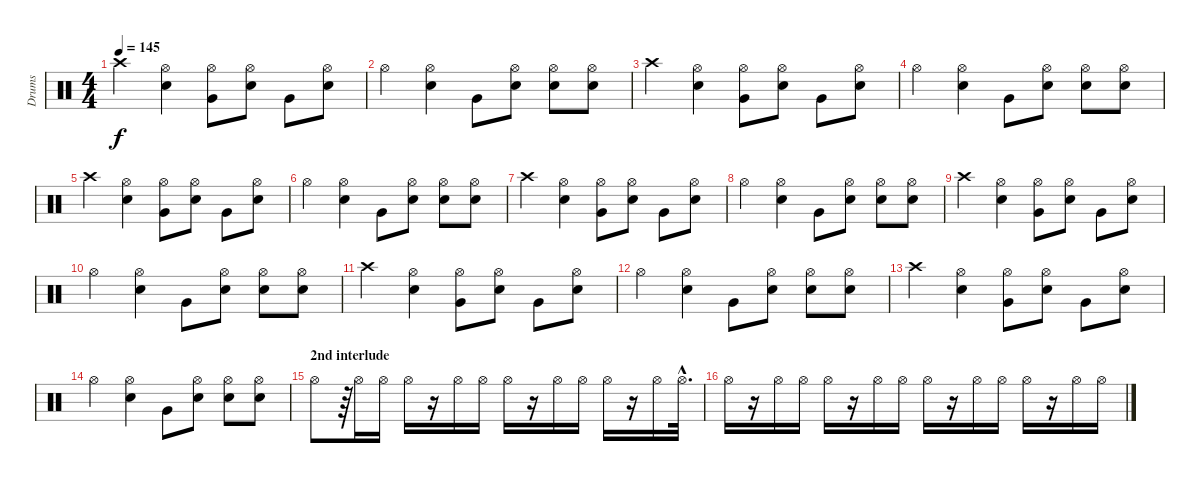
\track ("Drums" "Drums") {instrument percussion}
\staff {score}
\articulation defaults
\ts (4 4)
\tempo 145
\clef neutral
\ks c "Crash high (hit)".4{dy f}
("Hi-Hat (open)" "Electric Snare (hit)").4 ("Hi-Hat (open)" "Very Low Tom (hit)").8 ("Hi-Hat (open)" "Electric Snare (hit)").8 "Very Low Tom (hit)".8 ("Hi-Hat (open)" "Electric Snare (hit)").8 |
"Hi-Hat (open)".4 ("Hi-Hat (open)" "Electric Snare (hit)").4 "Very Low Tom (hit)".8 ("Hi-Hat (open)" "Electric Snare (hit)").8 ("Hi-Hat (open)" "Electric Snare (hit)").8 ("Hi-Hat (open)" "Electric Snare (hit)").8 |
"Crash high (hit)".4 ("Hi-Hat (open)" "Electric Snare (hit)").4 ("Hi-Hat (open)" "Very Low Tom (hit)").8 ("Hi-Hat (open)" "Electric Snare (hit)").8 "Very Low Tom (hit)".8 ("Hi-Hat (open)" "Electric Snare (hit)").8 |
"Hi-Hat (open)".4 ("Hi-Hat (open)" "Electric Snare (hit)").4 "Very Low Tom (hit)".8 ("Hi-Hat (open)" "Electric Snare (hit)").8 ("Hi-Hat (open)" "Electric Snare (hit)").8 ("Hi-Hat (open)" "Electric Snare (hit)").8 |
"Crash high (hit)".4 ("Hi-Hat (open)" "Electric Snare (hit)").4 ("Hi-Hat (open)" "Very Low Tom (hit)").8 ("Hi-Hat (open)" "Electric Snare (hit)").8 "Very Low Tom (hit)".8 ("Hi-Hat (open)" "Electric Snare (hit)").8 |
"Hi-Hat (open)".4 ("Hi-Hat (open)" "Electric Snare (hit)").4 "Very Low Tom (hit)".8 ("Hi-Hat (open)" "Electric Snare (hit)").8 ("Hi-Hat (open)" "Electric Snare (hit)").8 ("Hi-Hat (open)" "Electric Snare (hit)").8 |
"Crash high (hit)".4 ("Hi-Hat (open)" "Electric Snare (hit)").4 ("Hi-Hat (open)" "Very Low Tom (hit)").8 ("Hi-Hat (open)" "Electric Snare (hit)").8 "Very Low Tom (hit)".8 ("Hi-Hat (open)" "Electric Snare (hit)").8 |
"Hi-Hat (open)".4 ("Hi-Hat (open)" "Electric Snare (hit)").4 "Very Low Tom (hit)".8 ("Hi-Hat (open)" "Electric Snare (hit)").8 ("Hi-Hat (open)" "Electric Snare (hit)").8 ("Hi-Hat (open)" "Electric Snare (hit)").8 |
"Crash high (hit)".4 ("Hi-Hat (open)" "Electric Snare (hit)").4 ("Hi-Hat (open)" "Very Low Tom (hit)").8 ("Hi-Hat (open)" "Electric Snare (hit)").8 "Very Low Tom (hit)".8 ("Hi-Hat (open)" "Electric Snare (hit)").8 |
"Hi-Hat (open)".4 ("Hi-Hat (open)" "Electric Snare (hit)").4 "Very Low Tom (hit)".8 ("Hi-Hat (open)" "Electric Snare (hit)").8 ("Hi-Hat (open)" "Electric Snare (hit)").8 ("Hi-Hat (open)" "Electric Snare (hit)").8 |
"Crash high (hit)".4 ("Hi-Hat (open)" "Electric Snare (hit)").4 ("Hi-Hat (open)" "Very Low Tom (hit)").8 ("Hi-Hat (open)" "Electric Snare (hit)").8 "Very Low Tom (hit)".8 ("Hi-Hat (open)" "Electric Snare (hit)").8 |
"Hi-Hat (open)".4 ("Hi-Hat (open)" "Electric Snare (hit)").4 "Very Low Tom (hit)".8 ("Hi-Hat (open)" "Electric Snare (hit)").8 ("Hi-Hat (open)" "Electric Snare (hit)").8 ("Hi-Hat (open)" "Electric Snare (hit)").8 |
"Crash high (hit)".4 ("Hi-Hat (open)" "Electric Snare (hit)").4 ("Hi-Hat (open)" "Very Low Tom (hit)").8 ("Hi-Hat (open)" "Electric Snare (hit)").8 "Very Low Tom (hit)".8 ("Hi-Hat (open)" "Electric Snare (hit)").8 |
"Hi-Hat (open)".4 ("Hi-Hat (open)" "Electric Snare (hit)").4 "Very Low Tom (hit)".8 ("Hi-Hat (open)" "Electric Snare (hit)").8 ("Hi-Hat (open)" "Electric Snare (hit)").8 ("Hi-Hat (open)" "Electric Snare (hit)").8 |
\section ("" "2nd interlude")
"Hi-Hat (open)".8 r.64 "Hi-Hat (open)".16 "Hi-Hat (open)".16 "Hi-Hat (open)".16 r.16 "Hi-Hat (open)".16 "Hi-Hat (open)".16 "Hi-Hat (open)".16 r.16 "Hi-Hat (open)".16 "Hi-Hat (open)".16 "Hi-Hat (open)".16 r.16 "Hi-Hat (open)".16 "Hi-Hat (open)"{hac}.32{d} |
"Hi-Hat (open)".16 r.16 "Hi-Hat (open)".16 "Hi-Hat (open)".16 "Hi-Hat (open)".16 r.16 "Hi-Hat (open)".16 "Hi-Hat (open)".16 "Hi-Hat (open)".16 r.16 "Hi-Hat (open)".16 "Hi-Hat (open)".16 "Hi-Hat (open)".16 r.16 "Hi-Hat (open)".16 "Hi-Hat (open)".16
